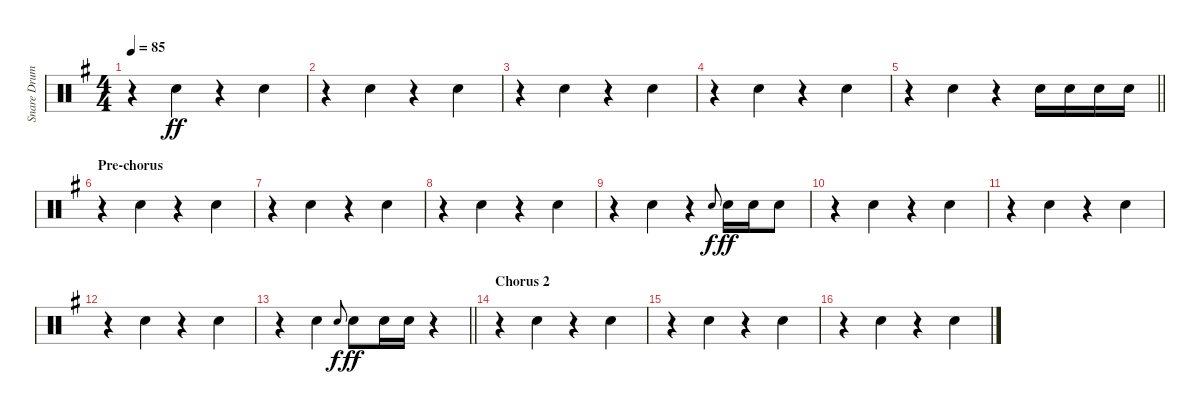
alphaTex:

\track ("Snare Drum" "Snare Drum") {instrument percussion}
\staff {score}
\articulation defaults
\ts (4 4)
\tempo 85
\clef neutral
\ks g
r.4{dy ff beam merge} "Electric Snare (hit)".4 r.4{beam merge} "Electric Snare (hit)".4 |
r.4{beam merge} "Electric Snare (hit)".4 r.4{beam merge} "Electric Snare (hit)".4 |
r.4{beam merge} "Electric Snare (hit)".4 r.4{beam merge} "Electric Snare (hit)".4 |
r.4{beam merge} "Electric Snare (hit)".4 r.4{beam merge} "Electric Snare (hit)".4 |
\barLineRight lightlight
r.4{beam merge} "Electric Snare (hit)".4 r.4 "Electric Snare (hit)".16 "Electric Snare (hit)".16 "Electric Snare (hit)".16 "Electric Snare (hit)".16 |
\section ("" "Pre-chorus")
r.4{beam merge} "Electric Snare (hit)".4 r.4{beam merge} "Electric Snare (hit)".4 |
r.4{beam merge} "Electric Snare (hit)".4 r.4{beam merge} "Electric Snare (hit)".4 |
r.4{beam merge} "Electric Snare (hit)".4 r.4{beam merge} "Electric Snare (hit)".4 |
r.4{beam merge} "Electric Snare (hit)".4 r.4 "Electric Snare (hit)".8{gr onbeat dy f} "Electric Snare (hit)".16{dy ff} "Electric Snare (hit)".16 "Electric Snare (hit)".8 |
r.4{beam merge} "Electric Snare (hit)".4 r.4{beam merge} "Electric Snare (hit)".4 |
r.4{beam merge} "Electric Snare (hit)".4 r.4{beam merge} "Electric Snare (hit)".4 |
r.4{beam merge} "Electric Snare (hit)".4 r.4{beam merge} "Electric Snare (hit)".4 |
\barLineRight lightlight
r.4{beam merge} "Electric Snare (hit)".4 "Electric Snare (hit)".8{gr onbeat dy f} "Electric Snare (hit)".8{dy ff} "Electric Snare (hit)".16 "Electric Snare (hit)".16 r.4 |
\section ("" "Chorus 2")
r.4{beam merge} "Electric Snare (hit)".4 r.4{beam merge} "Electric Snare (hit)".4 |
r.4{beam merge} "Electric Snare (hit)".4 r.4{beam merge} "Electric Snare (hit)".4 |
r.4{beam merge} "Electric Snare (hit)".4 r.4{beam merge} "Electric Snare (hit)".4
